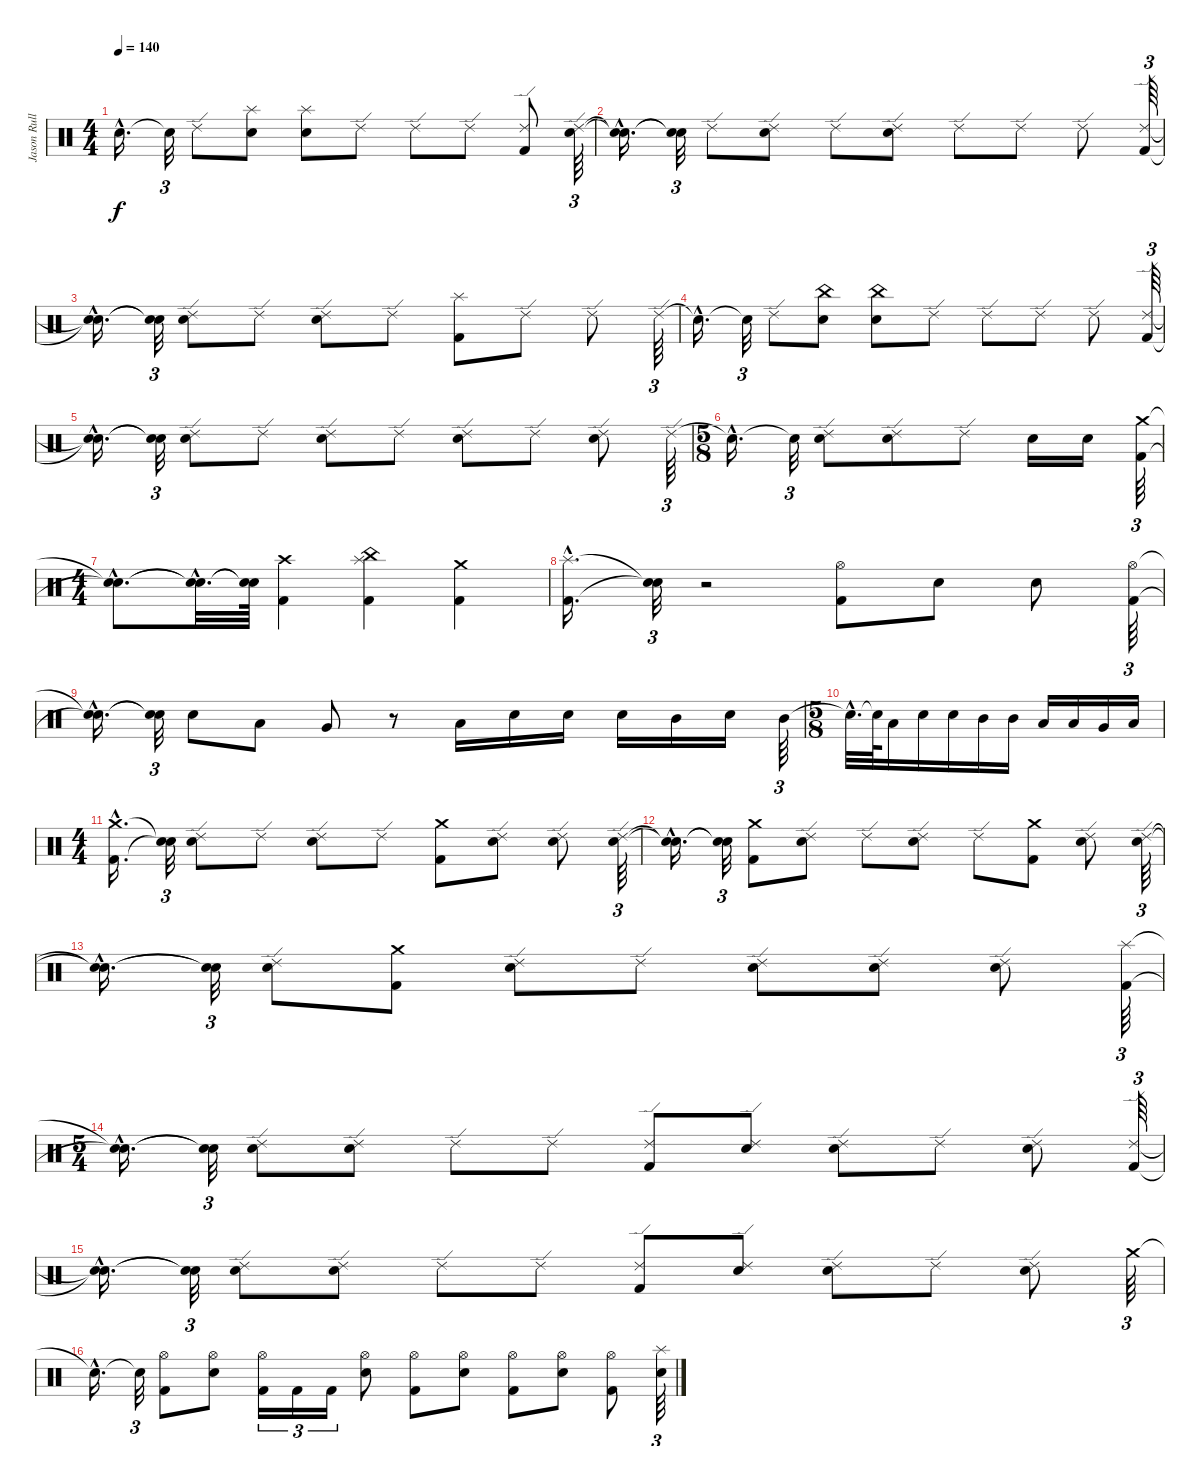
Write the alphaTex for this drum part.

\track ("Jason Rullo" "Jason Rull") {instrument percussion}
\staff {score}
\articulation defaults
\ts (4 4)
\tempo 140
\clef neutral
\ks c "Snare (hit)"{hac t}.16{d dy f} "Snare (hit)"{t}.32{tu (3 2)} "Ride (edge) 2".8
("Splash (hit)" "Electric Snare (hit)").8 ("Splash (hit)" "Electric Snare (hit)").8 "Ride (edge) 2".8 "Ride (edge) 2".8 "Ride (edge) 2".8 ("Kick (hit) 2" "Ride (edge) 2").8 ("Electric Snare (hit)" "Ride (edge) 2").64{tu (3 2)} |
("Snare (hit)"{hac t} "Snare (hit)"{hac t}).16{d} ("Snare (hit)"{t} "Snare (hit)"{t}).32{tu (3 2)} "Ride (edge) 2".8 ("Electric Snare (hit)" "Ride (edge) 2").8 "Ride (edge) 2".8 ("Electric Snare (hit)" "Ride (edge) 2").8 "Ride (edge) 2".8 "Ride (edge) 2".8 "Ride (edge) 2".8 ("Ride (edge) 2" "Kick (hit) 2").64{tu (3 2)} |
("Snare (hit)"{hac t} "Snare (hit)"{hac t}).16{d} ("Snare (hit)"{t} "Snare (hit)"{t}).32{tu (3 2)} ("Electric Snare (hit)" "Ride (edge) 2").8 "Ride (edge) 2".8 ("Electric Snare (hit)" "Ride (edge) 2").8 "Ride (edge) 2".8 ("Splash (hit)" "Kick (hit) 2").8 "Ride (edge) 2".8 "Ride (edge) 2".8 "Ride (edge) 2".64{tu (3 2)} |
"Snare (hit)"{hac t}.16{d} "Snare (hit)"{t}.32{tu (3 2)} "Ride (edge) 2".8 ("China (hit)" "Electric Snare (hit)").8 ("China (hit)" "Electric Snare (hit)").8 "Ride (edge) 2".8 "Ride (edge) 2".8 "Ride (edge) 2".8 "Ride (edge) 2".8 ("Ride (edge) 2" "Kick (hit) 2").64{tu (3 2)} |
("Snare (hit)"{hac t} "Snare (hit)"{hac t}).16{d} ("Snare (hit)"{t} "Snare (hit)"{t}).32{tu (3 2)} ("Electric Snare (hit)" "Ride (edge) 2").8 "Ride (edge) 2".8 ("Electric Snare (hit)" "Ride (edge) 2").8 "Ride (edge) 2".8 ("Electric Snare (hit)" "Ride (edge) 2").8 "Ride (edge) 2".8 ("Electric Snare (hit)" "Ride (edge) 2").8 "Ride (edge) 2".64{tu (3 2)} |
\ts (5 8)
"Snare (hit)"{hac t}.16{d} "Snare (hit)"{t}.32{tu (3 2)} ("Electric Snare (hit)" "Ride (edge) 2").8 ("Electric Snare (hit)" "Ride (edge) 2").8 "Ride (edge) 2".8 "Electric Snare (hit)".16 "Electric Snare (hit)".16 ("Crash medium (hit)" "Kick (hit) 2").64{tu (3 2)} |
\ts (4 4)
("Snare (hit)"{hac t} "Snare (hit)"{hac t}).8{d} ("Snare (hit)"{hac t} "Snare (hit)"{hac t}).32{d} ("Snare (hit)"{t} "Snare (hit)"{t}).64 ("Crash high (hit)" "Kick (hit) 2").4 ("Splash (hit)" "China (hit)" "Kick (hit) 2").4 ("Crash medium (hit)" "Kick (hit) 2").4 |
("Splash (hit)"{hac} "Kick (hit) 2"{hac}).16{d} ("Snare (hit)"{t} "Snare (hit)"{t}).32{tu (3 2)} r.2 ("Hi-Hat (open)" "Kick (hit) 2").8 "Electric Snare (hit)".8 "Electric Snare (hit)".8 ("Hi-Hat (open)" "Kick (hit) 2").64{tu (3 2)} |
("Snare (hit)"{hac t} "Snare (hit)"{hac t}).16{d} ("Snare (hit)"{t} "Snare (hit)"{t}).32{tu (3 2)} "Electric Snare (hit)".8 "Low Tom (hit)".8 "Very Low Tom (hit)".8 r.8 "Low Tom (hit)".16 "Electric Snare (hit)".16 "Electric Snare (hit)".16 "Electric Snare (hit)".16 "Mid Tom (hit)".16 "Electric Snare (hit)".16 "Mid Tom (hit)".64{tu (3 2)} |
\ts (5 8)
"Snare (hit)"{hac t}.32{d} "Snare (hit)"{t}.64 "Low Tom (hit)".16 "Electric Snare (hit)".16 "Electric Snare (hit)".16 "Mid Tom (hit)".16 "Mid Tom (hit)".16 "Low Tom (hit)".16 "Low Tom (hit)".16 "Very Low Tom (hit)".16 "Low Floor Tom (hit)".16 |
\ts (4 4)
("Crash medium (hit)"{hac} "Kick (hit) 2"{hac}).16{d} ("Snare (hit)"{t} "Snare (hit)"{t}).32{tu (3 2)} ("Ride (edge) 2" "Electric Snare (hit)").8 "Ride (edge) 2".8 ("Ride (edge) 2" "Electric Snare (hit)").8 "Ride (edge) 2".8 ("Crash medium (hit)" "Kick (hit) 2").8 ("Ride (edge) 2" "Electric Snare (hit)").8 ("Ride (edge) 2" "Electric Snare (hit)").8 ("Ride (edge) 2" "Electric Snare (hit)").64{tu (3 2)} |
("Snare (hit)"{hac t} "Snare (hit)"{hac t}).16{d} ("Snare (hit)"{t} "Snare (hit)"{t}).32{tu (3 2)} ("Crash medium (hit)" "Kick (hit) 2").8 ("Ride (edge) 2" "Electric Snare (hit)").8 "Ride (edge) 2".8 ("Ride (edge) 2" "Electric Snare (hit)").8 "Ride (edge) 2".8 ("Crash medium (hit)" "Kick (hit) 2").8 ("Ride (edge) 2" "Electric Snare (hit)").8 ("Ride (edge) 2" "Electric Snare (hit)").64{tu (3 2)} |
("Snare (hit)"{hac t} "Snare (hit)"{hac t}).16{d} ("Snare (hit)"{t} "Snare (hit)"{t}).32{tu (3 2)} ("Ride (edge) 2" "Electric Snare (hit)").8 ("Crash medium (hit)" "Kick (hit) 2").8 ("Ride (edge) 2" "Electric Snare (hit)").8 "Ride (edge) 2".8 ("Ride (edge) 2" "Electric Snare (hit)").8 ("Ride (edge) 2" "Electric Snare (hit)").8 ("Ride (edge) 2" "Electric Snare (hit)").8 ("Splash (hit)" "Kick (hit) 2").64{tu (3 2)} |
\ts (5 4)
("Snare (hit)"{hac t} "Snare (hit)"{hac t}).16{d} ("Snare (hit)"{t} "Snare (hit)"{t}).32{tu (3 2)} ("Ride (edge) 2" "Electric Snare (hit)").8 ("Ride (edge) 2" "Electric Snare (hit)").8 "Ride (edge) 2".8 "Ride (edge) 2".8 ("Kick (hit) 2" "Ride (edge) 2").8 ("Electric Snare (hit)" "Ride (edge) 2").8 ("Electric Snare (hit)" "Ride (edge) 2").8 "Ride (edge) 2".8 ("Electric Snare (hit)" "Ride (edge) 2").8 ("Ride (edge) 2" "Kick (hit) 2").64{tu (3 2)} |
("Snare (hit)"{hac t} "Snare (hit)"{hac t}).16{d} ("Snare (hit)"{t} "Snare (hit)"{t}).32{tu (3 2)} ("Ride (edge) 2" "Electric Snare (hit)").8 ("Ride (edge) 2" "Electric Snare (hit)").8 "Ride (edge) 2".8 "Ride (edge) 2".8 ("Kick (hit) 2" "Ride (edge) 2").8 ("Electric Snare (hit)" "Ride (edge) 2").8 ("Electric Snare (hit)" "Ride (edge) 2").8 "Ride (edge) 2".8 ("Electric Snare (hit)" "Ride (edge) 2").8 "Crash medium (hit)".64{tu (3 2)} |
"Snare (hit)"{hac t}.16{d} "Snare (hit)"{t}.32{tu (3 2)} ("Kick (hit) 2" "Hi-Hat (open)").8 ("Electric Snare (hit)" "Hi-Hat (open)").8 ("Kick (hit) 2" "Hi-Hat (open)").16{tu (3 2)} "Kick (hit) 2".16{tu (3 2)} "Kick (hit) 2".16{tu (3 2)} ("Electric Snare (hit)" "Hi-Hat (open)").8 ("Kick (hit) 2" "Hi-Hat (open)").8 ("Electric Snare (hit)" "Hi-Hat (open)").8 ("Kick (hit) 2" "Hi-Hat (open)").8 ("Electric Snare (hit)" "Hi-Hat (open)").8 ("Kick (hit) 2" "Hi-Hat (open)").8 ("Splash (hit)" "Electric Snare (hit)").64{tu (3 2)}
